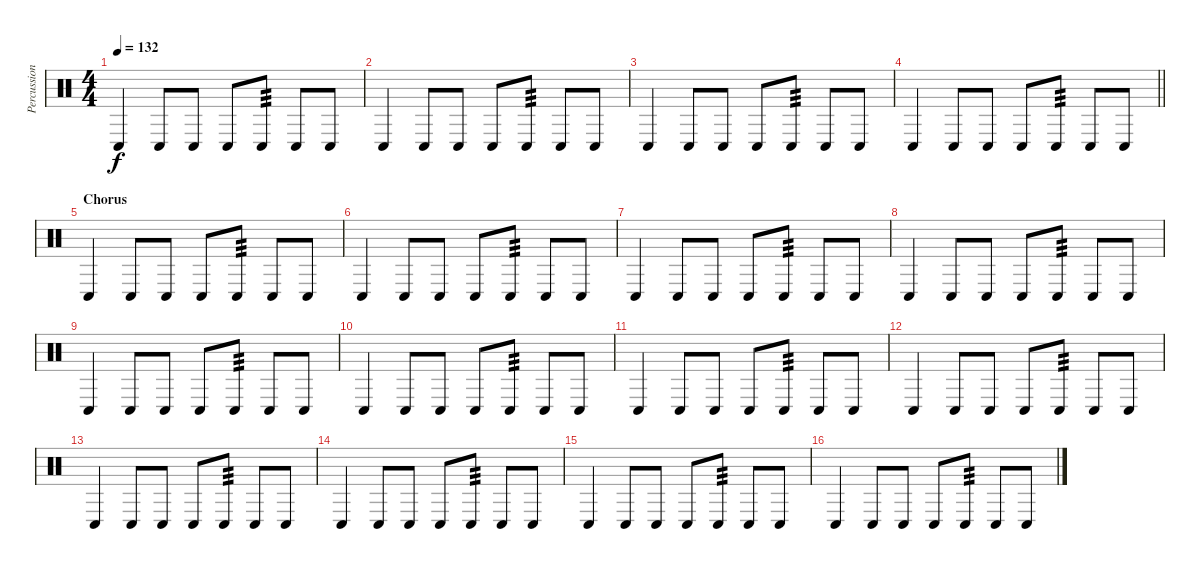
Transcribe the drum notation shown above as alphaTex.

\track ("Percussion" "Percussion") {instrument percussion}
\staff {score}
\articulation defaults
\ts (4 4)
\tempo 132
\clef neutral
\ks c "Conga low (hit)".4{dy f} "Conga low (hit)".8 "Conga low (hit)".8 "Conga low (hit)".8 "Conga low (hit)".8{tp 3} "Conga low (hit)".8 "Conga low (hit)".8
|
"Conga low (hit)".4 "Conga low (hit)".8 "Conga low (hit)".8 "Conga low (hit)".8 "Conga low (hit)".8{tp 3} "Conga low (hit)".8 "Conga low (hit)".8 |
"Conga low (hit)".4 "Conga low (hit)".8 "Conga low (hit)".8 "Conga low (hit)".8 "Conga low (hit)".8{tp 3} "Conga low (hit)".8 "Conga low (hit)".8 |
\barLineRight lightlight "Conga low (hit)".4 "Conga low (hit)".8 "Conga low (hit)".8 "Conga low (hit)".8 "Conga low (hit)".8{tp 3} "Conga low (hit)".8 "Conga low (hit)".8
|
\section ("" "Chorus")
"Conga low (hit)".4 "Conga low (hit)".8 "Conga low (hit)".8 "Conga low (hit)".8 "Conga low (hit)".8{tp 3} "Conga low (hit)".8 "Conga low (hit)".8 |
"Conga low (hit)".4 "Conga low (hit)".8 "Conga low (hit)".8 "Conga low (hit)".8 "Conga low (hit)".8{tp 3} "Conga low (hit)".8 "Conga low (hit)".8 |
"Conga low (hit)".4 "Conga low (hit)".8 "Conga low (hit)".8 "Conga low (hit)".8 "Conga low (hit)".8{tp 3} "Conga low (hit)".8 "Conga low (hit)".8 |
"Conga low (hit)".4 "Conga low (hit)".8 "Conga low (hit)".8 "Conga low (hit)".8 "Conga low (hit)".8{tp 3} "Conga low (hit)".8 "Conga low (hit)".8 |
"Conga low (hit)".4 "Conga low (hit)".8 "Conga low (hit)".8 "Conga low (hit)".8 "Conga low (hit)".8{tp 3} "Conga low (hit)".8 "Conga low (hit)".8 |
"Conga low (hit)".4 "Conga low (hit)".8 "Conga low (hit)".8 "Conga low (hit)".8 "Conga low (hit)".8{tp 3} "Conga low (hit)".8 "Conga low (hit)".8 |
"Conga low (hit)".4 "Conga low (hit)".8 "Conga low (hit)".8 "Conga low (hit)".8 "Conga low (hit)".8{tp 3} "Conga low (hit)".8 "Conga low (hit)".8 |
"Conga low (hit)".4 "Conga low (hit)".8 "Conga low (hit)".8 "Conga low (hit)".8 "Conga low (hit)".8{tp 3} "Conga low (hit)".8 "Conga low (hit)".8 |
"Conga low (hit)".4 "Conga low (hit)".8 "Conga low (hit)".8 "Conga low (hit)".8 "Conga low (hit)".8{tp 3} "Conga low (hit)".8 "Conga low (hit)".8 |
"Conga low (hit)".4 "Conga low (hit)".8 "Conga low (hit)".8 "Conga low (hit)".8 "Conga low (hit)".8{tp 3} "Conga low (hit)".8 "Conga low (hit)".8 |
"Conga low (hit)".4 "Conga low (hit)".8 "Conga low (hit)".8 "Conga low (hit)".8 "Conga low (hit)".8{tp 3} "Conga low (hit)".8 "Conga low (hit)".8 |
"Conga low (hit)".4 "Conga low (hit)".8 "Conga low (hit)".8 "Conga low (hit)".8 "Conga low (hit)".8{tp 3} "Conga low (hit)".8 "Conga low (hit)".8
